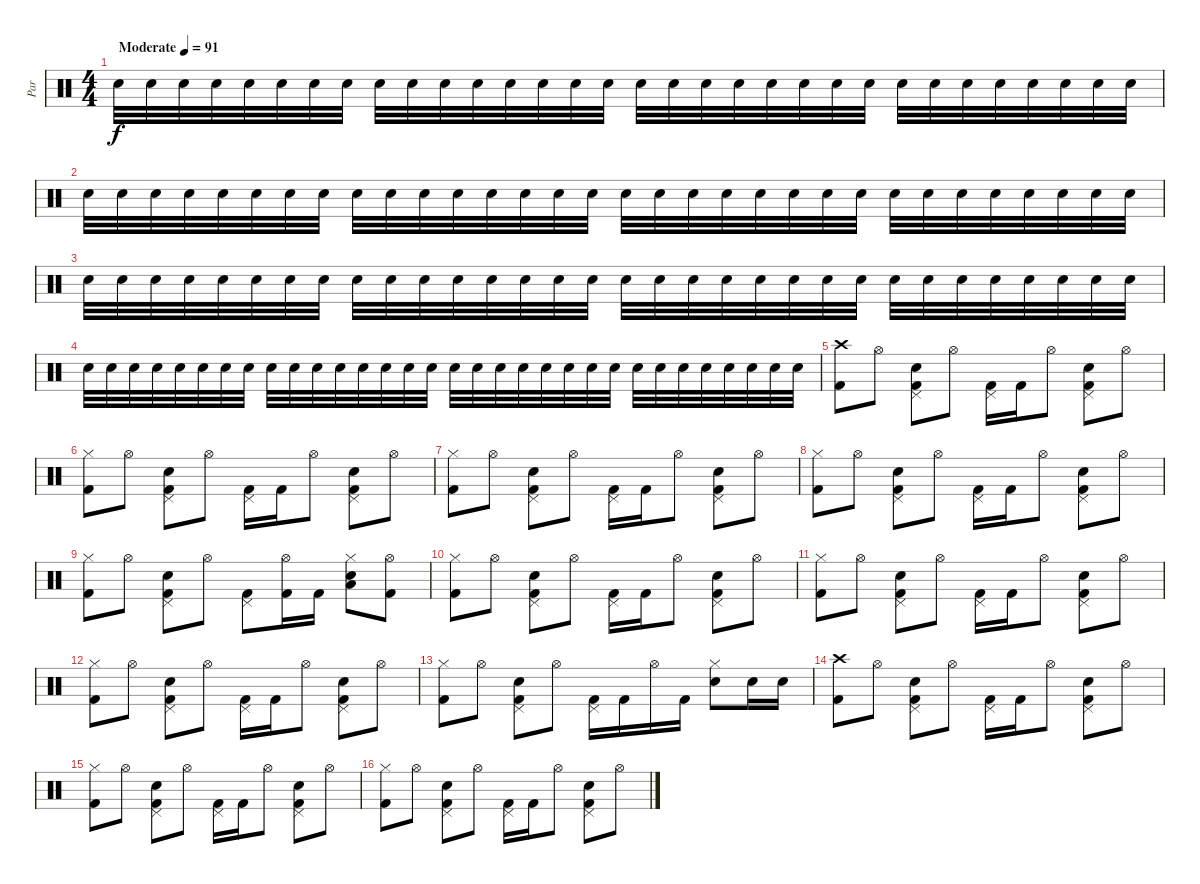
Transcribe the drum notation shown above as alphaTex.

\track ("Par" "Par") {instrument percussion}
\staff {score}
\articulation defaults
\ts (4 4)
\tempo (91 "Moderate")
\clef neutral
\ks c "Snare (hit) 2".32{dy f} "Snare (hit) 2".32 "Snare (hit) 2".32 "Snare (hit) 2".32 "Snare (hit) 2".32 "Snare (hit) 2".32 "Snare (hit) 2".32 "Snare (hit) 2".32 "Snare (hit) 2".32 "Snare (hit) 2".32 "Snare (hit) 2".32 "Snare (hit) 2".32 "Snare (hit) 2".32 "Snare (hit) 2".32 "Snare (hit) 2".32 "Snare (hit) 2".32 "Snare (hit) 2".32 "Snare (hit) 2".32 "Snare (hit) 2".32 "Snare (hit) 2".32 "Snare (hit) 2".32 "Snare (hit) 2".32 "Snare (hit) 2".32 "Snare (hit) 2".32 "Snare (hit) 2".32 "Snare (hit) 2".32 "Snare (hit) 2".32 "Snare (hit) 2".32 "Snare (hit) 2".32 "Snare (hit) 2".32 "Snare (hit) 2".32 "Snare (hit) 2".32
|
"Snare (hit) 2".32 "Snare (hit) 2".32 "Snare (hit) 2".32 "Snare (hit) 2".32 "Snare (hit) 2".32 "Snare (hit) 2".32 "Snare (hit) 2".32 "Snare (hit) 2".32 "Snare (hit) 2".32 "Snare (hit) 2".32 "Snare (hit) 2".32 "Snare (hit) 2".32 "Snare (hit) 2".32 "Snare (hit) 2".32 "Snare (hit) 2".32 "Snare (hit) 2".32 "Snare (hit) 2".32 "Snare (hit) 2".32 "Snare (hit) 2".32 "Snare (hit) 2".32 "Snare (hit) 2".32 "Snare (hit) 2".32 "Snare (hit) 2".32 "Snare (hit) 2".32 "Snare (hit) 2".32 "Snare (hit) 2".32 "Snare (hit) 2".32 "Snare (hit) 2".32 "Snare (hit) 2".32 "Snare (hit) 2".32 "Snare (hit) 2".32 "Snare (hit) 2".32 |
"Snare (hit) 2".32{volume 11} "Snare (hit) 2".32 "Snare (hit) 2".32 "Snare (hit) 2".32 "Snare (hit) 2".32 "Snare (hit) 2".32 "Snare (hit) 2".32 "Snare (hit) 2".32 "Snare (hit) 2".32 "Snare (hit) 2".32 "Snare (hit) 2".32 "Snare (hit) 2".32 "Snare (hit) 2".32 "Snare (hit) 2".32 "Snare (hit) 2".32 "Snare (hit) 2".32 "Snare (hit) 2".32{volume 12} "Snare (hit) 2".32 "Snare (hit) 2".32 "Snare (hit) 2".32 "Snare (hit) 2".32 "Snare (hit) 2".32 "Snare (hit) 2".32 "Snare (hit) 2".32 "Snare (hit) 2".32 "Snare (hit) 2".32 "Snare (hit) 2".32 "Snare (hit) 2".32 "Snare (hit) 2".32 "Snare (hit) 2".32 "Snare (hit) 2".32 "Snare (hit) 2".32 |
"Snare (hit) 2".32{volume 13} "Snare (hit) 2".32 "Snare (hit) 2".32 "Snare (hit) 2".32 "Snare (hit) 2".32 "Snare (hit) 2".32 "Snare (hit) 2".32 "Snare (hit) 2".32 "Snare (hit) 2".32 "Snare (hit) 2".32 "Snare (hit) 2".32 "Snare (hit) 2".32 "Snare (hit) 2".32 "Snare (hit) 2".32 "Snare (hit) 2".32 "Snare (hit) 2".32 "Snare (hit) 2".32 "Snare (hit) 2".32 "Snare (hit) 2".32 "Snare (hit) 2".32 "Snare (hit) 2".32{volume 16} "Snare (hit) 2".32 "Snare (hit) 2".32 "Snare (hit) 2".32 "Snare (hit) 2".32 "Snare (hit) 2".32 "Snare (hit) 2".32 "Snare (hit) 2".32 "Snare (hit) 2".32 "Snare (hit) 2".32 "Snare (hit) 2".32 "Snare (hit) 2".32 |
("Crash high (hit)" "Kick (hit) 2").8{volume 10} "Hi-Hat (open)".8 ("Pedal Hi-Hat (hit)" "Snare (hit) 2" "Kick (hit) 2").8 "Hi-Hat (open)".8 ("Pedal Hi-Hat (hit)" "Kick (hit) 2").16 "Kick (hit) 2".16 "Hi-Hat (open)".8 ("Pedal Hi-Hat (hit)" "Snare (hit) 2" "Kick (hit) 2").8 "Hi-Hat (open)".8 |
("Hi-Hat (closed)" "Kick (hit) 2").8 "Hi-Hat (open)".8 ("Pedal Hi-Hat (hit)" "Snare (hit) 2" "Kick (hit) 2").8 "Hi-Hat (open)".8 ("Pedal Hi-Hat (hit)" "Kick (hit) 2").16 "Kick (hit) 2".16 "Hi-Hat (open)".8 ("Pedal Hi-Hat (hit)" "Snare (hit) 2" "Kick (hit) 2").8 "Hi-Hat (open)".8 |
("Hi-Hat (closed)" "Kick (hit) 2").8 "Hi-Hat (open)".8 ("Pedal Hi-Hat (hit)" "Snare (hit) 2" "Kick (hit) 2").8 "Hi-Hat (open)".8 ("Pedal Hi-Hat (hit)" "Kick (hit) 2").16 "Kick (hit) 2".16 "Hi-Hat (open)".8 ("Pedal Hi-Hat (hit)" "Snare (hit) 2" "Kick (hit) 2").8 "Hi-Hat (open)".8 |
("Hi-Hat (closed)" "Kick (hit) 2").8 "Hi-Hat (open)".8 ("Pedal Hi-Hat (hit)" "Snare (hit) 2" "Kick (hit) 2").8 "Hi-Hat (open)".8 ("Pedal Hi-Hat (hit)" "Kick (hit) 2").16 "Kick (hit) 2".16 "Hi-Hat (open)".8 ("Pedal Hi-Hat (hit)" "Snare (hit) 2" "Kick (hit) 2").8 "Hi-Hat (open)".8 |
("Hi-Hat (closed)" "Kick (hit) 2").8 "Hi-Hat (open)".8 ("Pedal Hi-Hat (hit)" "Snare (hit) 2" "Kick (hit) 2").8 "Hi-Hat (open)".8 ("Pedal Hi-Hat (hit)" "Kick (hit) 2").8 ("Hi-Hat (open)" "Kick (hit) 2").16 "Kick (hit) 2".16 ("Hi-Hat (closed)" "Low Floor Tom (hit)" "Snare (hit) 2").8 ("Hi-Hat (open)" "Kick (hit) 2").8 |
("Hi-Hat (closed)" "Kick (hit) 2").8 "Hi-Hat (open)".8 ("Pedal Hi-Hat (hit)" "Snare (hit) 2" "Kick (hit) 2").8 "Hi-Hat (open)".8 ("Pedal Hi-Hat (hit)" "Kick (hit) 2").16 "Kick (hit) 2".16 "Hi-Hat (open)".8 ("Pedal Hi-Hat (hit)" "Snare (hit) 2" "Kick (hit) 2").8 "Hi-Hat (open)".8 |
("Hi-Hat (closed)" "Kick (hit) 2").8 "Hi-Hat (open)".8 ("Pedal Hi-Hat (hit)" "Snare (hit) 2" "Kick (hit) 2").8 "Hi-Hat (open)".8 ("Pedal Hi-Hat (hit)" "Kick (hit) 2").16 "Kick (hit) 2".16 "Hi-Hat (open)".8 ("Pedal Hi-Hat (hit)" "Snare (hit) 2" "Kick (hit) 2").8 "Hi-Hat (open)".8 |
("Hi-Hat (closed)" "Kick (hit) 2").8 "Hi-Hat (open)".8 ("Pedal Hi-Hat (hit)" "Snare (hit) 2" "Kick (hit) 2").8 "Hi-Hat (open)".8 ("Pedal Hi-Hat (hit)" "Kick (hit) 2").16 "Kick (hit) 2".16 "Hi-Hat (open)".8 ("Pedal Hi-Hat (hit)" "Snare (hit) 2" "Kick (hit) 2").8 "Hi-Hat (open)".8 |
("Hi-Hat (closed)" "Kick (hit) 2").8 "Hi-Hat (open)".8 ("Pedal Hi-Hat (hit)" "Snare (hit) 2" "Kick (hit) 2").8 "Hi-Hat (open)".8 ("Pedal Hi-Hat (hit)" "Kick (hit) 2").16 "Kick (hit) 2".16 "Hi-Hat (open)".16 "Kick (hit) 2".16 ("Hi-Hat (closed)" "Snare (hit) 2").8 "Snare (hit) 2".16 "Snare (hit) 2".16 |
("Crash high (hit)" "Kick (hit) 2").8 "Hi-Hat (open)".8 ("Pedal Hi-Hat (hit)" "Snare (hit) 2" "Kick (hit) 2").8 "Hi-Hat (open)".8 ("Pedal Hi-Hat (hit)" "Kick (hit) 2").16 "Kick (hit) 2".16 "Hi-Hat (open)".8 ("Pedal Hi-Hat (hit)" "Snare (hit) 2" "Kick (hit) 2").8 "Hi-Hat (open)".8 |
("Hi-Hat (closed)" "Kick (hit) 2").8 "Hi-Hat (open)".8 ("Pedal Hi-Hat (hit)" "Snare (hit) 2" "Kick (hit) 2").8 "Hi-Hat (open)".8 ("Pedal Hi-Hat (hit)" "Kick (hit) 2").16 "Kick (hit) 2".16 "Hi-Hat (open)".8 ("Pedal Hi-Hat (hit)" "Snare (hit) 2" "Kick (hit) 2").8 "Hi-Hat (open)".8 |
("Hi-Hat (closed)" "Kick (hit) 2").8 "Hi-Hat (open)".8 ("Pedal Hi-Hat (hit)" "Snare (hit) 2" "Kick (hit) 2").8 "Hi-Hat (open)".8 ("Pedal Hi-Hat (hit)" "Kick (hit) 2").16 "Kick (hit) 2".16 "Hi-Hat (open)".8 ("Pedal Hi-Hat (hit)" "Snare (hit) 2" "Kick (hit) 2").8 "Hi-Hat (open)".8
